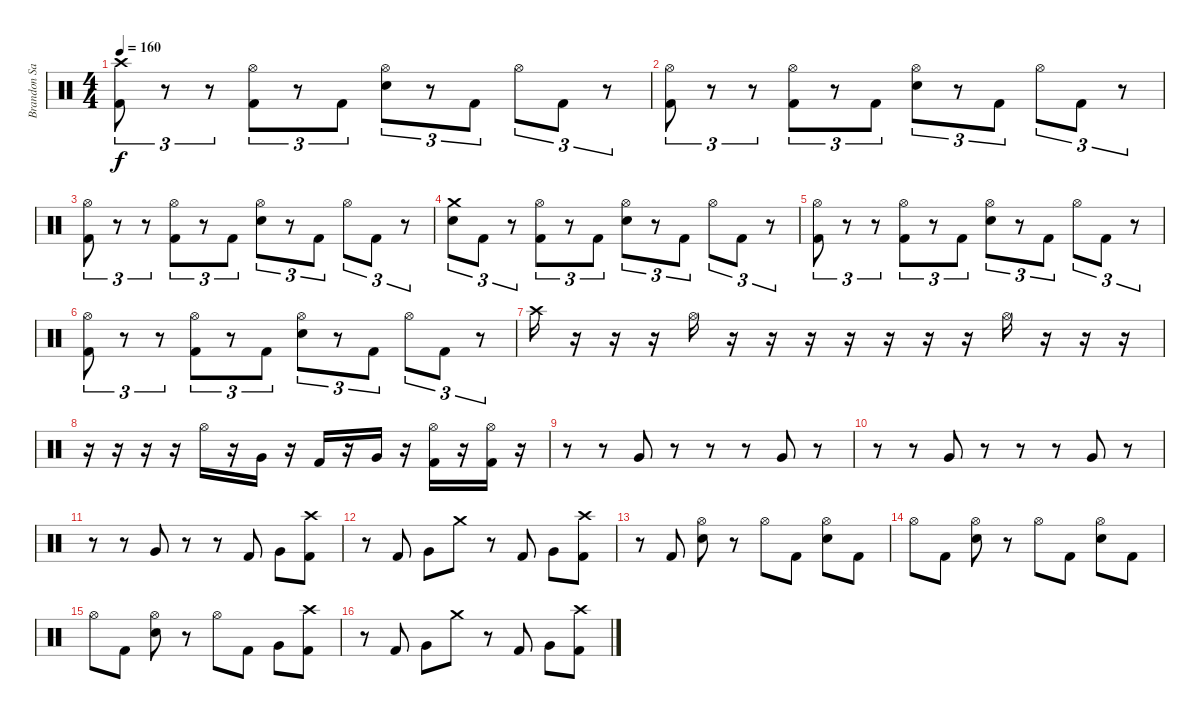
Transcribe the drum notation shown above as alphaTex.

\track ("Brandon Saller" "Brandon Sa") {instrument percussion}
\staff {score}
\articulation defaults
\ts (4 4)
\tempo 160
\clef neutral
\ks c
("Crash high (hit)" "Kick (hit) 2").8{tu (3 2) dy f} r.8{tu (3 2)} r.8{tu (3 2)} ("Hi-Hat (open)" "Kick (hit) 2").8{tu (3 2)} r.8{tu (3 2)} "Kick (hit) 2".8{tu (3 2)} ("Hi-Hat (open)" "Electric Snare (hit)").8{tu (3 2)} r.8{tu (3 2)} "Kick (hit) 2".8{tu (3 2)} "Hi-Hat (open)".8{tu (3 2)} "Kick (hit) 2".8{tu (3 2)} r.8{tu (3 2)} |
("Hi-Hat (open)" "Kick (hit) 2").8{tu (3 2)} r.8{tu (3 2)} r.8{tu (3 2)} ("Hi-Hat (open)" "Kick (hit) 2").8{tu (3 2)} r.8{tu (3 2)} "Kick (hit) 2".8{tu (3 2)} ("Hi-Hat (open)" "Electric Snare (hit)").8{tu (3 2)} r.8{tu (3 2)} "Kick (hit) 2".8{tu (3 2)} "Hi-Hat (open)".8{tu (3 2)} "Kick (hit) 2".8{tu (3 2)} r.8{tu (3 2)} |
("Hi-Hat (open)" "Kick (hit) 2").8{tu (3 2)} r.8{tu (3 2)} r.8{tu (3 2)} ("Hi-Hat (open)" "Kick (hit) 2").8{tu (3 2)} r.8{tu (3 2)} "Kick (hit) 2".8{tu (3 2)} ("Hi-Hat (open)" "Electric Snare (hit)").8{tu (3 2)} r.8{tu (3 2)} "Kick (hit) 2".8{tu (3 2)} "Hi-Hat (open)".8{tu (3 2)} "Kick (hit) 2".8{tu (3 2)} r.8{tu (3 2)} |
("Crash medium (hit)" "Electric Snare (hit)").8{tu (3 2)} "Kick (hit) 2".8{tu (3 2)} r.8{tu (3 2)} ("Hi-Hat (open)" "Kick (hit) 2").8{tu (3 2)} r.8{tu (3 2)} "Kick (hit) 2".8{tu (3 2)} ("Hi-Hat (open)" "Electric Snare (hit)").8{tu (3 2)} r.8{tu (3 2)} "Kick (hit) 2".8{tu (3 2)} "Hi-Hat (open)".8{tu (3 2)} "Kick (hit) 2".8{tu (3 2)} r.8{tu (3 2)} |
("Hi-Hat (open)" "Kick (hit) 2").8{tu (3 2)} r.8{tu (3 2)} r.8{tu (3 2)} ("Hi-Hat (open)" "Kick (hit) 2").8{tu (3 2)} r.8{tu (3 2)} "Kick (hit) 2".8{tu (3 2)} ("Hi-Hat (open)" "Electric Snare (hit)").8{tu (3 2)} r.8{tu (3 2)} "Kick (hit) 2".8{tu (3 2)} "Hi-Hat (open)".8{tu (3 2)} "Kick (hit) 2".8{tu (3 2)} r.8{tu (3 2)} |
("Hi-Hat (open)" "Kick (hit) 2").8{tu (3 2)} r.8{tu (3 2)} r.8{tu (3 2)} ("Hi-Hat (open)" "Kick (hit) 2").8{tu (3 2)} r.8{tu (3 2)} "Kick (hit) 2".8{tu (3 2)} ("Hi-Hat (open)" "Electric Snare (hit)").8{tu (3 2)} r.8{tu (3 2)} "Kick (hit) 2".8{tu (3 2)} "Hi-Hat (open)".8{tu (3 2)} "Kick (hit) 2".8{tu (3 2)} r.8{tu (3 2)} |
"Crash high (hit)".16 r.16 r.16 r.16 "Hi-Hat (open)".16 r.16 r.16 r.16 r.16 r.16 r.16 r.16 "Hi-Hat (open)".16 r.16 r.16 r.16 |
r.16 r.16 r.16 r.16 "Hi-Hat (open)".16 r.16 "Very Low Tom (hit)".16 r.16 "Kick (hit) 2".16 r.16 "Very Low Tom (hit)".16 r.16 ("Hi-Hat (open)" "Kick (hit) 2").16 r.16 ("Hi-Hat (open)" "Kick (hit) 2").16 r.16 |
r.8 r.8 "Very Low Tom (hit)".8 r.8 r.8 r.8 "Very Low Tom (hit)".8 r.8 |
r.8 r.8 "Very Low Tom (hit)".8 r.8 r.8 r.8 "Very Low Tom (hit)".8 r.8 |
r.8 r.8 "Very Low Tom (hit)".8 r.8 r.8 "Kick (hit) 2".8 "Very Low Tom (hit)".8 ("Crash high (hit)" "Kick (hit) 2").8 |
r.8 "Kick (hit) 2".8 "Very Low Tom (hit)".8 "Crash medium (hit)".8 r.8 "Kick (hit) 2".8 "Very Low Tom (hit)".8 ("Crash high (hit)" "Kick (hit) 2").8 |
r.8 "Kick (hit) 2".8 ("Hi-Hat (open)" "Electric Snare (hit)").8 r.8 "Hi-Hat (open)".8 "Kick (hit) 2".8 ("Hi-Hat (open)" "Electric Snare (hit)").8 "Kick (hit) 2".8 |
"Hi-Hat (open)".8 "Kick (hit) 2".8 ("Hi-Hat (open)" "Electric Snare (hit)").8 r.8 "Hi-Hat (open)".8 "Kick (hit) 2".8 ("Hi-Hat (open)" "Electric Snare (hit)").8 "Kick (hit) 2".8 |
"Hi-Hat (open)".8 "Kick (hit) 2".8 ("Hi-Hat (open)" "Electric Snare (hit)").8 r.8 "Hi-Hat (open)".8 "Kick (hit) 2".8 "Very Low Tom (hit)".8 ("Crash high (hit)" "Kick (hit) 2").8 |
r.8 "Kick (hit) 2".8 "Very Low Tom (hit)".8 "Crash medium (hit)".8 r.8 "Kick (hit) 2".8 "Very Low Tom (hit)".8 ("Crash high (hit)" "Kick (hit) 2").8
